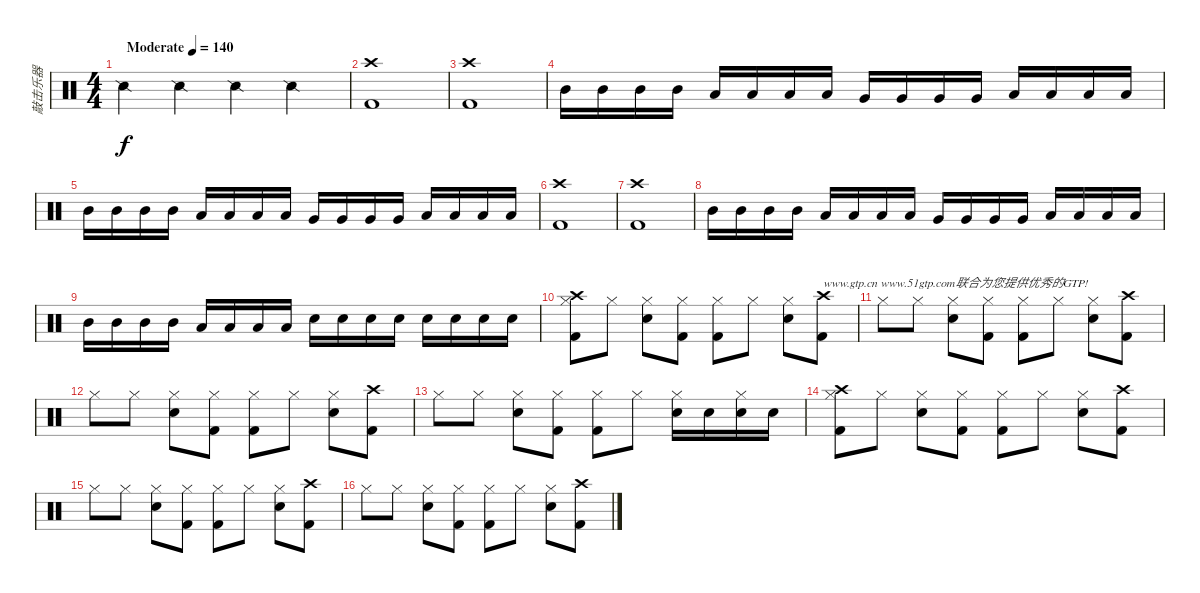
\track ("敲击乐器" "敲击乐器") {instrument percussion}
\staff {score}
\articulation defaults
\ts (4 4)
\tempo (140 "Moderate")
\clef neutral
\ks c "Snare (side stick) 2".4{dy f} "Snare (side stick) 2".4 "Snare (side stick) 2".4 "Snare (side stick) 2".4
|
("Crash high (hit)" "Kick (hit) 2").1 |
("Kick (hit) 2" "Crash high (hit)").1 |
"Mid Tom (hit)".16 "Mid Tom (hit)".16 "Mid Tom (hit)".16 "Mid Tom (hit)".16 "Low Tom (hit)".16 "Low Tom (hit)".16 "Low Tom (hit)".16 "Low Tom (hit)".16 "Very Low Tom (hit)".16 "Very Low Tom (hit)".16 "Very Low Tom (hit)".16 "Very Low Tom (hit)".16 "Low Floor Tom (hit)".16 "Low Floor Tom (hit)".16 "Low Floor Tom (hit)".16 "Low Floor Tom (hit)".16 |
"Mid Tom (hit)".16 "Mid Tom (hit)".16 "Mid Tom (hit)".16 "Mid Tom (hit)".16 "Low Tom (hit)".16 "Low Tom (hit)".16 "Low Tom (hit)".16 "Low Tom (hit)".16 "Very Low Tom (hit)".16 "Very Low Tom (hit)".16 "Very Low Tom (hit)".16 "Very Low Tom (hit)".16 "Low Floor Tom (hit)".16 "Low Floor Tom (hit)".16 "Low Floor Tom (hit)".16 "Low Floor Tom (hit)".16 |
("Crash high (hit)" "Kick (hit) 2").1 |
("Kick (hit) 2" "Crash high (hit)").1 |
"Mid Tom (hit)".16 "Mid Tom (hit)".16 "Mid Tom (hit)".16 "Mid Tom (hit)".16 "Low Tom (hit)".16 "Low Tom (hit)".16 "Low Tom (hit)".16 "Low Tom (hit)".16 "Very Low Tom (hit)".16 "Very Low Tom (hit)".16 "Very Low Tom (hit)".16 "Very Low Tom (hit)".16 "Low Floor Tom (hit)".16 "Low Floor Tom (hit)".16 "Low Floor Tom (hit)".16 "Low Floor Tom (hit)".16 |
"Mid Tom (hit)".16 "Mid Tom (hit)".16 "Mid Tom (hit)".16 "Mid Tom (hit)".16 "Low Tom (hit)".16 "Low Tom (hit)".16 "Low Tom (hit)".16 "Low Tom (hit)".16 "Electric Snare (hit)".16 "Electric Snare (hit)".16 "Electric Snare (hit)".16 "Electric Snare (hit)".16 "Electric Snare (hit)".16 "Electric Snare (hit)".16 "Electric Snare (hit)".16 "Electric Snare (hit)".16 |
("Kick (hit) 2" "Hi-Hat (closed)" "Crash high (hit)").8 "Hi-Hat (closed)".8 ("Hi-Hat (closed)" "Electric Snare (hit)").8 ("Hi-Hat (closed)" "Kick (hit) 2").8 ("Hi-Hat (closed)" "Kick (hit) 2").8 "Hi-Hat (closed)".8 ("Hi-Hat (closed)" "Electric Snare (hit)").8 ("Crash high (hit)" "Kick (hit) 2").8{txt "www.gtp.cn www.51gtp.com联合为您提供优秀的GTP!"} |
"Hi-Hat (closed)".8 "Hi-Hat (closed)".8 ("Hi-Hat (closed)" "Electric Snare (hit)").8 ("Hi-Hat (closed)" "Kick (hit) 2").8 ("Hi-Hat (closed)" "Kick (hit) 2").8 "Hi-Hat (closed)".8 ("Hi-Hat (closed)" "Electric Snare (hit)").8 ("Crash high (hit)" "Kick (hit) 2").8 |
"Hi-Hat (closed)".8 "Hi-Hat (closed)".8 ("Hi-Hat (closed)" "Electric Snare (hit)").8 ("Hi-Hat (closed)" "Kick (hit) 2").8 ("Hi-Hat (closed)" "Kick (hit) 2").8 "Hi-Hat (closed)".8 ("Hi-Hat (closed)" "Electric Snare (hit)").8 ("Crash high (hit)" "Kick (hit) 2").8 |
"Hi-Hat (closed)".8 "Hi-Hat (closed)".8 ("Hi-Hat (closed)" "Electric Snare (hit)").8 ("Hi-Hat (closed)" "Kick (hit) 2").8 ("Hi-Hat (closed)" "Kick (hit) 2").8 "Hi-Hat (closed)".8 ("Hi-Hat (closed)" "Electric Snare (hit)").16 "Electric Snare (hit)".16 ("Hi-Hat (closed)" "Electric Snare (hit)").16 "Electric Snare (hit)".16 |
("Kick (hit) 2" "Hi-Hat (closed)" "Crash high (hit)").8 "Hi-Hat (closed)".8 ("Hi-Hat (closed)" "Electric Snare (hit)").8 ("Hi-Hat (closed)" "Kick (hit) 2").8 ("Hi-Hat (closed)" "Kick (hit) 2").8 "Hi-Hat (closed)".8 ("Hi-Hat (closed)" "Electric Snare (hit)").8 ("Crash high (hit)" "Kick (hit) 2").8 |
"Hi-Hat (closed)".8 "Hi-Hat (closed)".8 ("Hi-Hat (closed)" "Electric Snare (hit)").8 ("Hi-Hat (closed)" "Kick (hit) 2").8 ("Hi-Hat (closed)" "Kick (hit) 2").8 "Hi-Hat (closed)".8 ("Hi-Hat (closed)" "Electric Snare (hit)").8 ("Crash high (hit)" "Kick (hit) 2").8 |
"Hi-Hat (closed)".8 "Hi-Hat (closed)".8 ("Hi-Hat (closed)" "Electric Snare (hit)").8 ("Hi-Hat (closed)" "Kick (hit) 2").8 ("Hi-Hat (closed)" "Kick (hit) 2").8 "Hi-Hat (closed)".8 ("Hi-Hat (closed)" "Electric Snare (hit)").8 ("Crash high (hit)" "Kick (hit) 2").8
